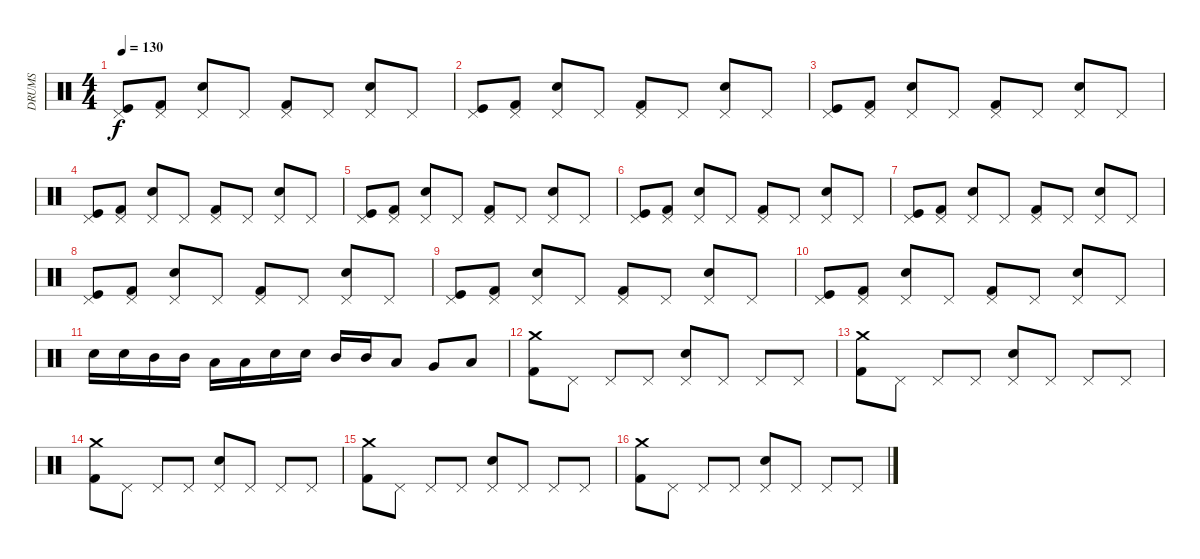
\track ("DRUMS" "DRUMS") {instrument percussion}
\staff {score}
\articulation defaults
\ts (4 4)
\tempo 130
\clef neutral
\ks c
("Pedal Hi-Hat (hit)" "Kick (hit)").8{dy f} ("Pedal Hi-Hat (hit)" "Kick (hit) 2").8 ("Pedal Hi-Hat (hit)" "Snare (hit) 2").8 "Pedal Hi-Hat (hit)".8 ("Pedal Hi-Hat (hit)" "Kick (hit) 2").8 "Pedal Hi-Hat (hit)".8 ("Pedal Hi-Hat (hit)" "Snare (hit) 2").8 "Pedal Hi-Hat (hit)".8 |
("Pedal Hi-Hat (hit)" "Kick (hit)").8 ("Pedal Hi-Hat (hit)" "Kick (hit) 2").8 ("Pedal Hi-Hat (hit)" "Snare (hit) 2").8 "Pedal Hi-Hat (hit)".8 ("Pedal Hi-Hat (hit)" "Kick (hit) 2").8 "Pedal Hi-Hat (hit)".8 ("Pedal Hi-Hat (hit)" "Snare (hit) 2").8 "Pedal Hi-Hat (hit)".8 |
("Pedal Hi-Hat (hit)" "Kick (hit)").8 ("Pedal Hi-Hat (hit)" "Kick (hit) 2").8 ("Pedal Hi-Hat (hit)" "Snare (hit) 2").8 "Pedal Hi-Hat (hit)".8 ("Pedal Hi-Hat (hit)" "Kick (hit) 2").8 "Pedal Hi-Hat (hit)".8 ("Pedal Hi-Hat (hit)" "Snare (hit) 2").8 "Pedal Hi-Hat (hit)".8 |
("Pedal Hi-Hat (hit)" "Kick (hit)").8 ("Pedal Hi-Hat (hit)" "Kick (hit) 2").8 ("Pedal Hi-Hat (hit)" "Snare (hit) 2").8 "Pedal Hi-Hat (hit)".8 ("Pedal Hi-Hat (hit)" "Kick (hit) 2").8 "Pedal Hi-Hat (hit)".8 ("Pedal Hi-Hat (hit)" "Snare (hit) 2").8 "Pedal Hi-Hat (hit)".8 |
("Pedal Hi-Hat (hit)" "Kick (hit)").8 ("Pedal Hi-Hat (hit)" "Kick (hit) 2").8 ("Pedal Hi-Hat (hit)" "Snare (hit) 2").8 "Pedal Hi-Hat (hit)".8 ("Pedal Hi-Hat (hit)" "Kick (hit) 2").8 "Pedal Hi-Hat (hit)".8 ("Pedal Hi-Hat (hit)" "Snare (hit) 2").8 "Pedal Hi-Hat (hit)".8 |
("Pedal Hi-Hat (hit)" "Kick (hit)").8 ("Pedal Hi-Hat (hit)" "Kick (hit) 2").8 ("Pedal Hi-Hat (hit)" "Snare (hit) 2").8 "Pedal Hi-Hat (hit)".8 ("Pedal Hi-Hat (hit)" "Kick (hit) 2").8 "Pedal Hi-Hat (hit)".8 ("Pedal Hi-Hat (hit)" "Snare (hit) 2").8 "Pedal Hi-Hat (hit)".8 |
("Pedal Hi-Hat (hit)" "Kick (hit)").8 ("Pedal Hi-Hat (hit)" "Kick (hit) 2").8 ("Pedal Hi-Hat (hit)" "Snare (hit) 2").8 "Pedal Hi-Hat (hit)".8 ("Pedal Hi-Hat (hit)" "Kick (hit) 2").8 "Pedal Hi-Hat (hit)".8 ("Pedal Hi-Hat (hit)" "Snare (hit) 2").8 "Pedal Hi-Hat (hit)".8 |
("Pedal Hi-Hat (hit)" "Kick (hit)").8 ("Pedal Hi-Hat (hit)" "Kick (hit) 2").8 ("Pedal Hi-Hat (hit)" "Snare (hit) 2").8 "Pedal Hi-Hat (hit)".8 ("Pedal Hi-Hat (hit)" "Kick (hit) 2").8 "Pedal Hi-Hat (hit)".8 ("Pedal Hi-Hat (hit)" "Snare (hit) 2").8 "Pedal Hi-Hat (hit)".8 |
("Pedal Hi-Hat (hit)" "Kick (hit)").8 ("Pedal Hi-Hat (hit)" "Kick (hit) 2").8 ("Pedal Hi-Hat (hit)" "Snare (hit) 2").8 "Pedal Hi-Hat (hit)".8 ("Pedal Hi-Hat (hit)" "Kick (hit) 2").8 "Pedal Hi-Hat (hit)".8 ("Pedal Hi-Hat (hit)" "Snare (hit) 2").8 "Pedal Hi-Hat (hit)".8 |
("Pedal Hi-Hat (hit)" "Kick (hit)").8 ("Pedal Hi-Hat (hit)" "Kick (hit) 2").8 ("Pedal Hi-Hat (hit)" "Snare (hit) 2").8 "Pedal Hi-Hat (hit)".8 ("Pedal Hi-Hat (hit)" "Kick (hit) 2").8 "Pedal Hi-Hat (hit)".8 ("Pedal Hi-Hat (hit)" "Snare (hit) 2").8 "Pedal Hi-Hat (hit)".8 |
"Snare (hit) 2".16 "Snare (hit) 2".16 "Mid Tom (hit)".16 "Mid Tom (hit)".16 "Low Tom (hit)".16 "Low Tom (hit)".16 "Snare (hit) 2".16 "Snare (hit) 2".16 "Mid Tom (hit)".16 "Mid Tom (hit)".16 "Low Tom (hit)".8 "Very Low Tom (hit)".8 "Low Floor Tom (hit)".8 |
("Crash medium (hit)" "Kick (hit) 2").8 "Pedal Hi-Hat (hit)".8 "Pedal Hi-Hat (hit)".8 "Pedal Hi-Hat (hit)".8 ("Pedal Hi-Hat (hit)" "Snare (hit) 2").8 "Pedal Hi-Hat (hit)".8 "Pedal Hi-Hat (hit)".8 "Pedal Hi-Hat (hit)".8 |
("Crash medium (hit)" "Kick (hit) 2").8 "Pedal Hi-Hat (hit)".8 "Pedal Hi-Hat (hit)".8 "Pedal Hi-Hat (hit)".8 ("Pedal Hi-Hat (hit)" "Snare (hit) 2").8 "Pedal Hi-Hat (hit)".8 "Pedal Hi-Hat (hit)".8 "Pedal Hi-Hat (hit)".8 |
("Crash medium (hit)" "Kick (hit) 2").8 "Pedal Hi-Hat (hit)".8 "Pedal Hi-Hat (hit)".8 "Pedal Hi-Hat (hit)".8 ("Pedal Hi-Hat (hit)" "Snare (hit) 2").8 "Pedal Hi-Hat (hit)".8 "Pedal Hi-Hat (hit)".8 "Pedal Hi-Hat (hit)".8 |
("Crash medium (hit)" "Kick (hit) 2").8 "Pedal Hi-Hat (hit)".8 "Pedal Hi-Hat (hit)".8 "Pedal Hi-Hat (hit)".8 ("Pedal Hi-Hat (hit)" "Snare (hit) 2").8 "Pedal Hi-Hat (hit)".8 "Pedal Hi-Hat (hit)".8 "Pedal Hi-Hat (hit)".8 |
("Crash medium (hit)" "Kick (hit) 2").8 "Pedal Hi-Hat (hit)".8 "Pedal Hi-Hat (hit)".8 "Pedal Hi-Hat (hit)".8 ("Pedal Hi-Hat (hit)" "Snare (hit) 2").8 "Pedal Hi-Hat (hit)".8 "Pedal Hi-Hat (hit)".8 "Pedal Hi-Hat (hit)".8
